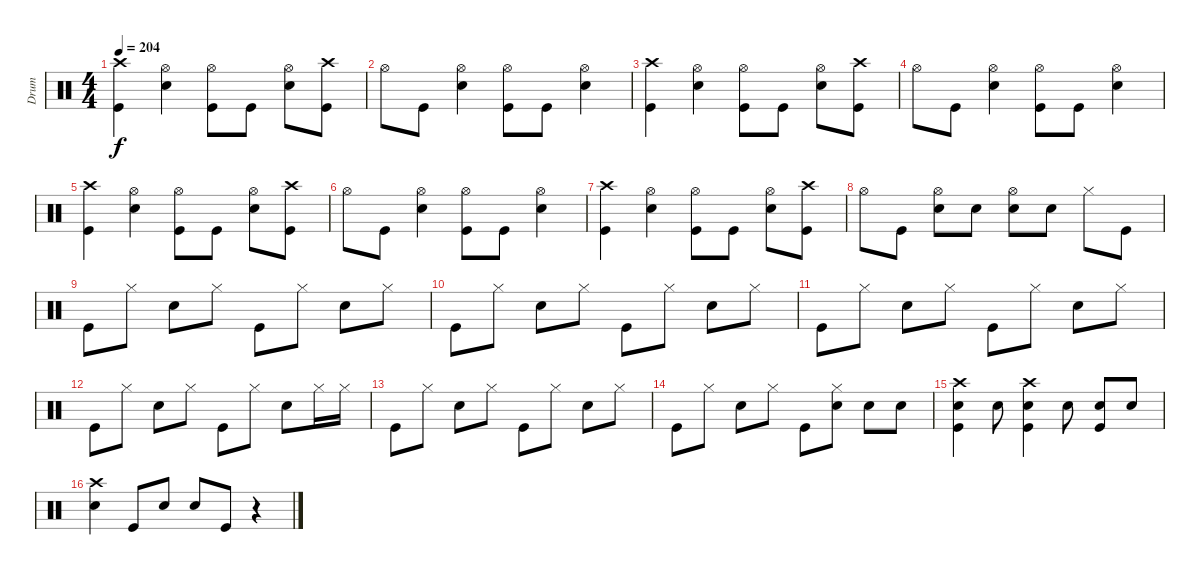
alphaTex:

\track ("Drum" "Drum") {instrument percussion}
\staff {score}
\articulation defaults
\ts (4 4)
\tempo 204
\clef neutral
\ks c
("Crash high (hit)" "Kick (hit)").4{dy f} ("Hi-Hat (open)" "Snare (hit) 2").4 ("Hi-Hat (open)" "Kick (hit)").8 "Kick (hit)".8 ("Hi-Hat (open)" "Snare (hit) 2").8 ("Crash high (hit)" "Kick (hit)").8 |
"Hi-Hat (open)".8 "Kick (hit)".8 ("Hi-Hat (open)" "Snare (hit) 2").4 ("Hi-Hat (open)" "Kick (hit)").8 "Kick (hit)".8 ("Hi-Hat (open)" "Snare (hit) 2").4 |
("Crash high (hit)" "Kick (hit)").4 ("Hi-Hat (open)" "Snare (hit) 2").4 ("Hi-Hat (open)" "Kick (hit)").8 "Kick (hit)".8 ("Hi-Hat (open)" "Snare (hit) 2").8 ("Crash high (hit)" "Kick (hit)").8 |
"Hi-Hat (open)".8 "Kick (hit)".8 ("Hi-Hat (open)" "Snare (hit) 2").4 ("Hi-Hat (open)" "Kick (hit)").8 "Kick (hit)".8 ("Hi-Hat (open)" "Snare (hit) 2").4 |
("Crash high (hit)" "Kick (hit)").4 ("Hi-Hat (open)" "Snare (hit) 2").4 ("Hi-Hat (open)" "Kick (hit)").8 "Kick (hit)".8 ("Hi-Hat (open)" "Snare (hit) 2").8 ("Crash high (hit)" "Kick (hit)").8 |
"Hi-Hat (open)".8 "Kick (hit)".8 ("Hi-Hat (open)" "Snare (hit) 2").4 ("Hi-Hat (open)" "Kick (hit)").8 "Kick (hit)".8 ("Hi-Hat (open)" "Snare (hit) 2").4 |
("Crash high (hit)" "Kick (hit)").4 ("Hi-Hat (open)" "Snare (hit) 2").4 ("Hi-Hat (open)" "Kick (hit)").8 "Kick (hit)".8 ("Hi-Hat (open)" "Snare (hit) 2").8 ("Crash high (hit)" "Kick (hit)").8 |
"Hi-Hat (open)".8 "Kick (hit)".8 ("Hi-Hat (open)" "Snare (hit) 2").8 "Snare (hit) 2".8 ("Hi-Hat (open)" "Snare (hit) 2").8 "Snare (hit) 2".8 "Hi-Hat (closed)".8 "Kick (hit)".8 |
"Kick (hit)".8 "Hi-Hat (closed)".8 "Snare (hit) 2".8 "Hi-Hat (closed)".8 "Kick (hit)".8 "Hi-Hat (closed)".8 "Snare (hit) 2".8 "Hi-Hat (closed)".8 |
"Kick (hit)".8 "Hi-Hat (closed)".8 "Snare (hit) 2".8 "Hi-Hat (closed)".8 "Kick (hit)".8 "Hi-Hat (closed)".8 "Snare (hit) 2".8 "Hi-Hat (closed)".8 |
"Kick (hit)".8 "Hi-Hat (closed)".8 "Snare (hit) 2".8 "Hi-Hat (closed)".8 "Kick (hit)".8 "Hi-Hat (closed)".8 "Snare (hit) 2".8 "Hi-Hat (closed)".8 |
"Kick (hit)".8 "Hi-Hat (closed)".8 "Snare (hit) 2".8 "Hi-Hat (closed)".8 "Kick (hit)".8 "Hi-Hat (closed)".8 "Snare (hit) 2".8 "Hi-Hat (closed)".16 "Hi-Hat (closed)".16 |
"Kick (hit)".8 "Hi-Hat (closed)".8 "Snare (hit) 2".8 "Hi-Hat (closed)".8 "Kick (hit)".8 "Hi-Hat (closed)".8 "Snare (hit) 2".8 "Hi-Hat (closed)".8 |
"Kick (hit)".8 "Hi-Hat (closed)".8 "Snare (hit) 2".8 "Hi-Hat (closed)".8 "Kick (hit)".8 ("Hi-Hat (closed)" "Snare (hit) 2").8 "Snare (hit) 2".8 "Snare (hit) 2".8 |
("Crash high (hit)" "Snare (hit) 2" "Kick (hit)").4 "Snare (hit) 2".8 ("Crash high (hit)" "Snare (hit) 2" "Kick (hit)").4 "Snare (hit) 2".8 ("Snare (hit) 2" "Kick (hit)").8 "Snare (hit) 2".8 |
("Crash high (hit)" "Snare (hit) 2").4 "Kick (hit)".8 "Snare (hit) 2".8 "Snare (hit) 2".8 "Kick (hit)".8 r.4
